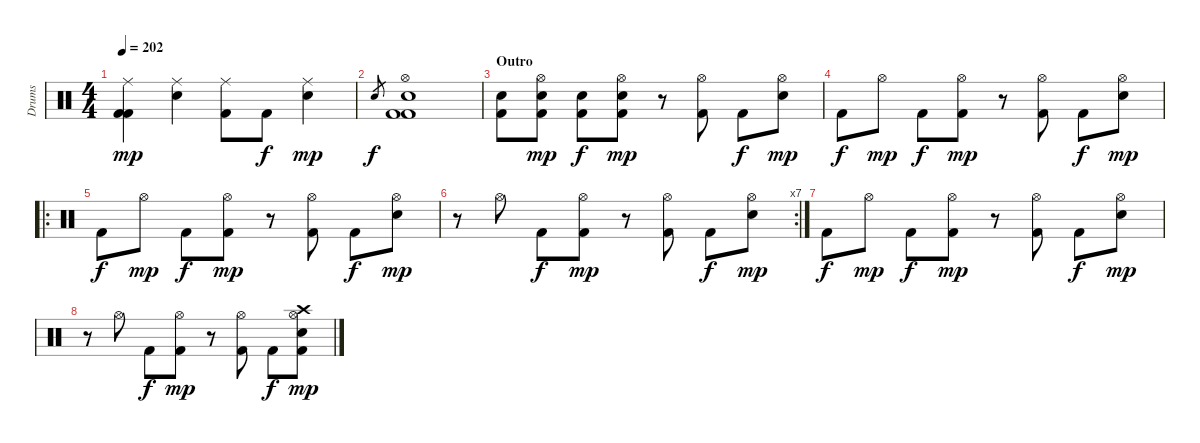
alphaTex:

\track ("Drums" "Drums") {instrument percussion}
\staff {score}
\articulation defaults
\ts (4 4)
\tempo 202
\clef neutral
\ks c
("Ride (middle)" "Kick (hit) 2" "Kick (hit) 2").4{dy mp} ("Ride (middle)" "Electric Snare (hit)").4 ("Ride (middle)" "Kick (hit) 2").8 "Kick (hit) 2".8{dy f} ("Ride (middle)" "Electric Snare (hit)").4{dy mp} |
"Electric Snare (hit)".8{gr dy f} ("Kick (hit) 2" "Hi-Hat (open)" "Electric Snare (hit)" "Kick (hit) 2").1 |
\section ("" "Outro")
("Electric Snare (hit)" "Kick (hit) 2").8 ("Hi-Hat (open)" "Electric Snare (hit)" "Kick (hit) 2").8{dy mp} ("Electric Snare (hit)" "Kick (hit) 2").8{dy f} ("Hi-Hat (open)" "Electric Snare (hit)" "Kick (hit) 2").8{dy mp} r.8 ("Hi-Hat (open)" "Kick (hit) 2").8 "Kick (hit) 2".8{dy f} ("Hi-Hat (open)" "Electric Snare (hit)").8{dy mp} |
"Kick (hit) 2".8{dy f} "Hi-Hat (open)".8{dy mp} "Kick (hit) 2".8{dy f} ("Hi-Hat (open)" "Kick (hit) 2").8{dy mp} r.8 ("Hi-Hat (open)" "Kick (hit) 2").8 "Kick (hit) 2".8{dy f} ("Hi-Hat (open)" "Electric Snare (hit)").8{dy mp} |
\ro "Kick (hit) 2".8{dy f} "Hi-Hat (open)".8{dy mp} "Kick (hit) 2".8{dy f}
("Hi-Hat (open)" "Kick (hit) 2").8{dy mp} r.8 ("Hi-Hat (open)" "Kick (hit) 2").8 "Kick (hit) 2".8{dy f} ("Hi-Hat (open)" "Electric Snare (hit)").8{dy mp} |
\rc 7
r.8 "Hi-Hat (open)".8 "Kick (hit) 2".8{dy f} ("Hi-Hat (open)" "Kick (hit) 2").8{dy mp} r.8 ("Hi-Hat (open)" "Kick (hit) 2").8 "Kick (hit) 2".8{dy f} ("Hi-Hat (open)" "Electric Snare (hit)").8{dy mp} |
"Kick (hit) 2".8{dy f} "Hi-Hat (open)".8{dy mp} "Kick (hit) 2".8{dy f} ("Hi-Hat (open)" "Kick (hit) 2").8{dy mp} r.8 ("Hi-Hat (open)" "Kick (hit) 2").8 "Kick (hit) 2".8{dy f} ("Hi-Hat (open)" "Electric Snare (hit)").8{dy mp} |
r.8 "Hi-Hat (open)".8 "Kick (hit) 2".8{dy f} ("Hi-Hat (open)" "Kick (hit) 2").8{dy mp} r.8 ("Hi-Hat (open)" "Kick (hit) 2").8 "Kick (hit) 2".8{dy f} ("Crash high (hit)" "Hi-Hat (open)" "Electric Snare (hit)" "Kick (hit) 2").8{dy mp}
